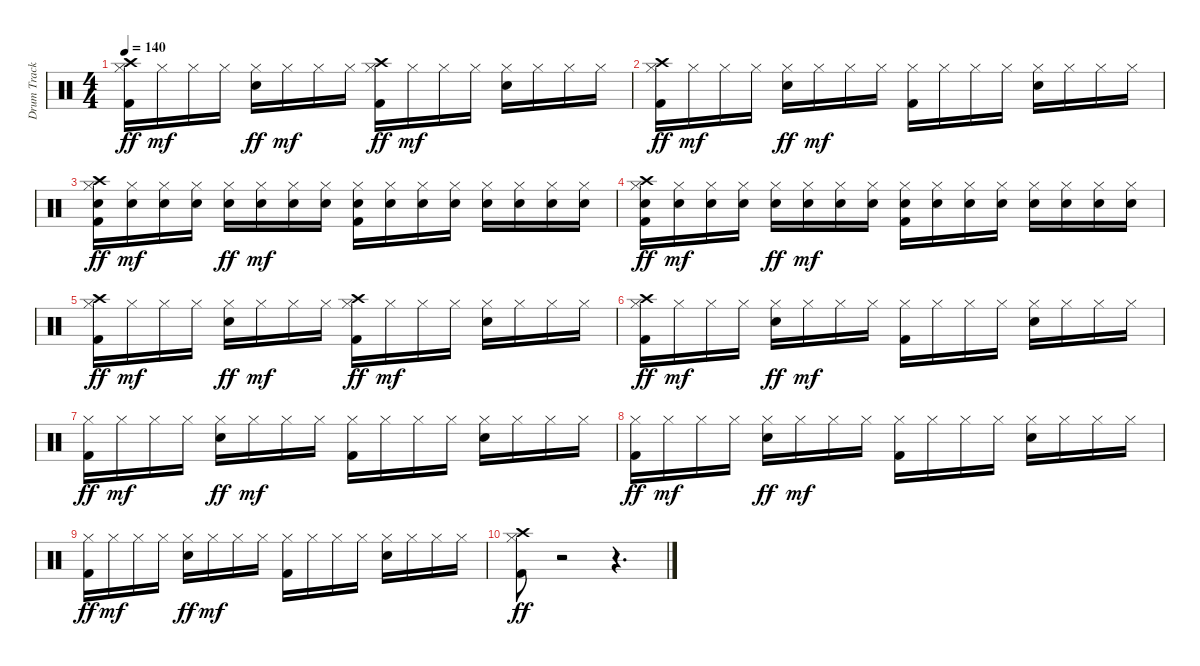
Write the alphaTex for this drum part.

\track ("Drum Track" "Drum Track") {instrument percussion}
\staff {score}
\articulation defaults
\ts (4 4)
\tempo 140
\clef neutral
\ks c
("Kick (hit) 2" "Hi-Hat (closed)" "Crash high (hit)").16{dy ff} "Hi-Hat (closed)".16{dy mf} "Hi-Hat (closed)".16 "Hi-Hat (closed)".16 ("Electric Snare (hit)" "Hi-Hat (closed)").16{dy ff} "Hi-Hat (closed)".16{dy mf} "Hi-Hat (closed)".16 "Hi-Hat (closed)".16 ("Kick (hit) 2" "Hi-Hat (closed)" "Crash high (hit)").16{dy ff} "Hi-Hat (closed)".16{dy mf} "Hi-Hat (closed)".16 "Hi-Hat (closed)".16 ("Electric Snare (hit)" "Hi-Hat (closed)").16 "Hi-Hat (closed)".16 "Hi-Hat (closed)".16 "Hi-Hat (closed)".16 |
("Kick (hit) 2" "Hi-Hat (closed)" "Crash high (hit)").16{dy ff} "Hi-Hat (closed)".16{dy mf} "Hi-Hat (closed)".16 "Hi-Hat (closed)".16 ("Electric Snare (hit)" "Hi-Hat (closed)").16{dy ff} "Hi-Hat (closed)".16{dy mf} "Hi-Hat (closed)".16 "Hi-Hat (closed)".16 ("Kick (hit) 2" "Hi-Hat (closed)").16 "Hi-Hat (closed)".16 "Hi-Hat (closed)".16 "Hi-Hat (closed)".16 ("Electric Snare (hit)" "Hi-Hat (closed)").16 "Hi-Hat (closed)".16 "Hi-Hat (closed)".16 "Hi-Hat (closed)".16 |
("Kick (hit) 2" "Electric Snare (hit)" "Hi-Hat (closed)" "Crash high (hit)").16{dy ff} ("Electric Snare (hit)" "Hi-Hat (closed)").16{dy mf} ("Electric Snare (hit)" "Hi-Hat (closed)").16 ("Electric Snare (hit)" "Hi-Hat (closed)").16 ("Electric Snare (hit)" "Hi-Hat (closed)").16{dy ff} ("Electric Snare (hit)" "Hi-Hat (closed)").16{dy mf} ("Electric Snare (hit)" "Hi-Hat (closed)").16 ("Electric Snare (hit)" "Hi-Hat (closed)").16 ("Kick (hit) 2" "Electric Snare (hit)" "Hi-Hat (closed)").16 ("Electric Snare (hit)" "Hi-Hat (closed)").16 ("Electric Snare (hit)" "Hi-Hat (closed)").16 ("Electric Snare (hit)" "Hi-Hat (closed)").16 ("Electric Snare (hit)" "Hi-Hat (closed)").16 ("Electric Snare (hit)" "Hi-Hat (closed)").16 ("Electric Snare (hit)" "Hi-Hat (closed)").16 ("Electric Snare (hit)" "Hi-Hat (closed)").16 |
("Kick (hit) 2" "Electric Snare (hit)" "Hi-Hat (closed)" "Crash high (hit)").16{dy ff} ("Electric Snare (hit)" "Hi-Hat (closed)").16{dy mf} ("Electric Snare (hit)" "Hi-Hat (closed)").16 ("Electric Snare (hit)" "Hi-Hat (closed)").16 ("Electric Snare (hit)" "Hi-Hat (closed)").16{dy ff} ("Electric Snare (hit)" "Hi-Hat (closed)").16{dy mf} ("Electric Snare (hit)" "Hi-Hat (closed)").16 ("Electric Snare (hit)" "Hi-Hat (closed)").16 ("Kick (hit) 2" "Electric Snare (hit)" "Hi-Hat (closed)").16 ("Electric Snare (hit)" "Hi-Hat (closed)").16 ("Electric Snare (hit)" "Hi-Hat (closed)").16 ("Electric Snare (hit)" "Hi-Hat (closed)").16 ("Electric Snare (hit)" "Hi-Hat (closed)").16 ("Electric Snare (hit)" "Hi-Hat (closed)").16 ("Electric Snare (hit)" "Hi-Hat (closed)").16 ("Electric Snare (hit)" "Hi-Hat (closed)").16 |
("Kick (hit) 2" "Hi-Hat (closed)" "Crash high (hit)").16{dy ff} "Hi-Hat (closed)".16{dy mf} "Hi-Hat (closed)".16 "Hi-Hat (closed)".16 ("Electric Snare (hit)" "Hi-Hat (closed)").16{dy ff} "Hi-Hat (closed)".16{dy mf} "Hi-Hat (closed)".16 "Hi-Hat (closed)".16 ("Kick (hit) 2" "Hi-Hat (closed)" "Crash high (hit)").16{dy ff} "Hi-Hat (closed)".16{dy mf} "Hi-Hat (closed)".16 "Hi-Hat (closed)".16 ("Electric Snare (hit)" "Hi-Hat (closed)").16 "Hi-Hat (closed)".16 "Hi-Hat (closed)".16 "Hi-Hat (closed)".16 |
("Kick (hit) 2" "Hi-Hat (closed)" "Crash high (hit)").16{dy ff} "Hi-Hat (closed)".16{dy mf} "Hi-Hat (closed)".16 "Hi-Hat (closed)".16 ("Electric Snare (hit)" "Hi-Hat (closed)").16{dy ff} "Hi-Hat (closed)".16{dy mf} "Hi-Hat (closed)".16 "Hi-Hat (closed)".16 ("Kick (hit) 2" "Hi-Hat (closed)").16 "Hi-Hat (closed)".16 "Hi-Hat (closed)".16 "Hi-Hat (closed)".16 ("Electric Snare (hit)" "Hi-Hat (closed)").16 "Hi-Hat (closed)".16 "Hi-Hat (closed)".16 "Hi-Hat (closed)".16 |
("Kick (hit) 2" "Hi-Hat (closed)").16{dy ff} "Hi-Hat (closed)".16{dy mf} "Hi-Hat (closed)".16 "Hi-Hat (closed)".16 ("Electric Snare (hit)" "Hi-Hat (closed)").16{dy ff} "Hi-Hat (closed)".16{dy mf} "Hi-Hat (closed)".16 "Hi-Hat (closed)".16 ("Kick (hit) 2" "Hi-Hat (closed)").16 "Hi-Hat (closed)".16 "Hi-Hat (closed)".16 "Hi-Hat (closed)".16 ("Electric Snare (hit)" "Hi-Hat (closed)").16 "Hi-Hat (closed)".16 "Hi-Hat (closed)".16 "Hi-Hat (closed)".16 |
("Kick (hit) 2" "Hi-Hat (closed)").16{dy ff} "Hi-Hat (closed)".16{dy mf} "Hi-Hat (closed)".16 "Hi-Hat (closed)".16 ("Electric Snare (hit)" "Hi-Hat (closed)").16{dy ff} "Hi-Hat (closed)".16{dy mf} "Hi-Hat (closed)".16 "Hi-Hat (closed)".16 ("Kick (hit) 2" "Hi-Hat (closed)").16 "Hi-Hat (closed)".16 "Hi-Hat (closed)".16 "Hi-Hat (closed)".16 ("Electric Snare (hit)" "Hi-Hat (closed)").16 "Hi-Hat (closed)".16 "Hi-Hat (closed)".16 "Hi-Hat (closed)".16 |
("Kick (hit) 2" "Hi-Hat (closed)").16{dy ff} "Hi-Hat (closed)".16{dy mf} "Hi-Hat (closed)".16 "Hi-Hat (closed)".16 ("Electric Snare (hit)" "Hi-Hat (closed)").16{dy ff} "Hi-Hat (closed)".16{dy mf} "Hi-Hat (closed)".16 "Hi-Hat (closed)".16 ("Kick (hit) 2" "Hi-Hat (closed)").16 "Hi-Hat (closed)".16 "Hi-Hat (closed)".16 "Hi-Hat (closed)".16 ("Electric Snare (hit)" "Hi-Hat (closed)").16 "Hi-Hat (closed)".16 "Hi-Hat (closed)".16 "Hi-Hat (closed)".16 |
("Kick (hit) 2" "Hi-Hat (closed)" "Crash high (hit)").8{dy ff} r.2 r.4{d}
